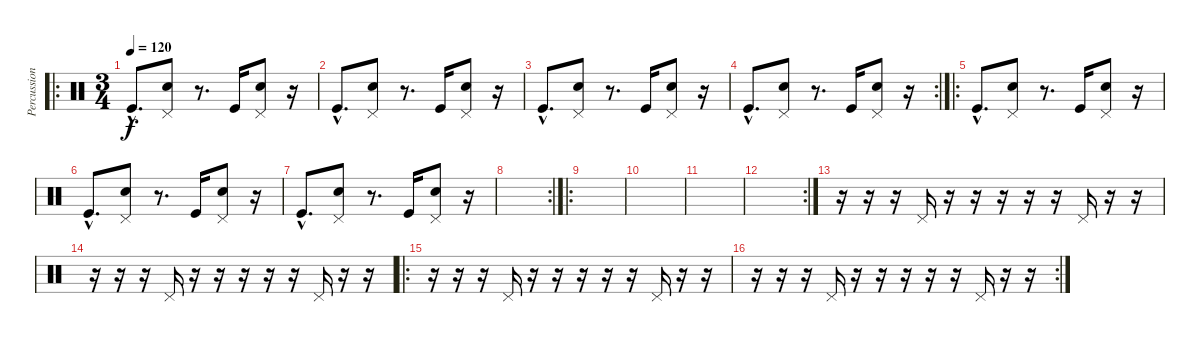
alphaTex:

\track ("Percussions" "Percussion") {instrument percussion}
\staff {score}
\articulation defaults
\ro
\ts (3 4)
\tempo 120
\clef neutral
\ks c "Kick (hit)"{hac}.8{d dy f}
("Pedal Hi-Hat (hit)" "Electric Snare (hit)").8 r.8{d} "Kick (hit)".16 ("Pedal Hi-Hat (hit)" "Electric Snare (hit)").8 r.16 |
"Kick (hit)"{hac}.8{d} ("Pedal Hi-Hat (hit)" "Electric Snare (hit)").8 r.8{d} "Kick (hit)".16 ("Pedal Hi-Hat (hit)" "Electric Snare (hit)").8 r.16 |
"Kick (hit)"{hac}.8{d} ("Pedal Hi-Hat (hit)" "Electric Snare (hit)").8 r.8{d} "Kick (hit)".16 ("Pedal Hi-Hat (hit)" "Electric Snare (hit)").8 r.16 |
\rc 2 "Kick (hit)"{hac}.8{d}
("Pedal Hi-Hat (hit)" "Electric Snare (hit)").8 r.8{d} "Kick (hit)".16 ("Pedal Hi-Hat (hit)" "Electric Snare (hit)").8 r.16 |
\ro "Kick (hit)"{hac}.8{d}
("Pedal Hi-Hat (hit)" "Electric Snare (hit)").8 r.8{d} "Kick (hit)".16 ("Pedal Hi-Hat (hit)" "Electric Snare (hit)").8 r.16 |
"Kick (hit)"{hac}.8{d} ("Pedal Hi-Hat (hit)" "Electric Snare (hit)").8 r.8{d} "Kick (hit)".16 ("Pedal Hi-Hat (hit)" "Electric Snare (hit)").8 r.16 |
"Kick (hit)"{hac}.8{d} ("Pedal Hi-Hat (hit)" "Electric Snare (hit)").8 r.8{d} "Kick (hit)".16 ("Pedal Hi-Hat (hit)" "Electric Snare (hit)").8 r.16 |
\rc 2
|
\ro
|
|
|
\rc 2
|
r.16 r.16 r.16 "Pedal Hi-Hat (hit)".16 r.16 r.16 r.16 r.16 r.16 "Pedal Hi-Hat (hit)".16 r.16 r.16 |
r.16 r.16 r.16 "Pedal Hi-Hat (hit)".16 r.16 r.16 r.16 r.16 r.16 "Pedal Hi-Hat (hit)".16 r.16 r.16 |
\ro
r.16 r.16 r.16 "Pedal Hi-Hat (hit)".16 r.16 r.16 r.16 r.16 r.16 "Pedal Hi-Hat (hit)".16 r.16 r.16 |
\rc 2
r.16 r.16 r.16 "Pedal Hi-Hat (hit)".16 r.16 r.16 r.16 r.16 r.16 "Pedal Hi-Hat (hit)".16 r.16 r.16
